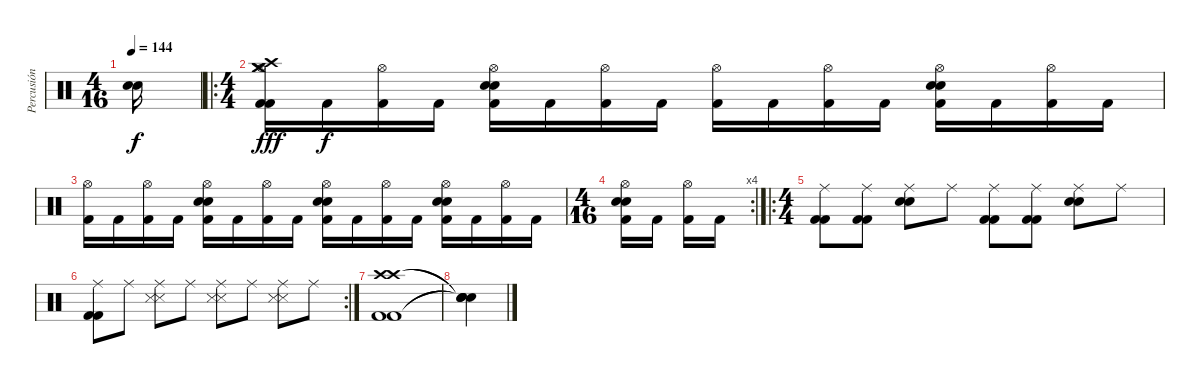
\track ("Percusión" "Percusión") {instrument percussion}
\staff {score}
\articulation defaults
\ts (4 16)
\tempo 144
\clef neutral
\ks c
("Electric Snare (hit)" "Electric Snare (hit)").16{dy f} |
\ro
\ts (4 4)
("Kick (hit) 2" "Kick (hit) 2" "Hi-Hat (open)" "Crash high (hit)" "Crash medium (hit)" "Crash medium (hit)").16{dy fff} "Kick (hit) 2".16{dy f} ("Kick (hit) 2" "Hi-Hat (open)").16 "Kick (hit) 2".16 ("Kick (hit) 2" "Hi-Hat (open)" "Electric Snare (hit)" "Electric Snare (hit)").16 "Kick (hit) 2".16 ("Kick (hit) 2" "Hi-Hat (open)").16 "Kick (hit) 2".16 ("Kick (hit) 2" "Hi-Hat (open)").16 "Kick (hit) 2".16 ("Kick (hit) 2" "Hi-Hat (open)").16 "Kick (hit) 2".16 ("Kick (hit) 2" "Hi-Hat (open)" "Electric Snare (hit)" "Electric Snare (hit)").16 "Kick (hit) 2".16 ("Kick (hit) 2" "Hi-Hat (open)").16 "Kick (hit) 2".16 |
("Kick (hit) 2" "Hi-Hat (open)").16 "Kick (hit) 2".16 ("Kick (hit) 2" "Hi-Hat (open)").16 "Kick (hit) 2".16 ("Kick (hit) 2" "Hi-Hat (open)" "Electric Snare (hit)" "Electric Snare (hit)").16 "Kick (hit) 2".16 ("Kick (hit) 2" "Hi-Hat (open)").16 "Kick (hit) 2".16 ("Kick (hit) 2" "Hi-Hat (open)" "Electric Snare (hit)" "Electric Snare (hit)").16 "Kick (hit) 2".16 ("Kick (hit) 2" "Hi-Hat (open)").16 "Kick (hit) 2".16 ("Kick (hit) 2" "Hi-Hat (open)" "Electric Snare (hit)" "Electric Snare (hit)").16 "Kick (hit) 2".16 ("Kick (hit) 2" "Hi-Hat (open)").16 "Kick (hit) 2".16 |
\rc 4
\ts (4 16)
("Kick (hit) 2" "Hi-Hat (open)" "Electric Snare (hit)" "Electric Snare (hit)").16 "Kick (hit) 2".16 ("Kick (hit) 2" "Hi-Hat (open)").16 "Kick (hit) 2".16 |
\ro
\ts (4 4)
("Ride (middle)" "Kick (hit) 2" "Kick (hit) 2").8 ("Ride (middle)" "Kick (hit) 2" "Kick (hit) 2").8 ("Electric Snare (hit)" "Ride (middle)" "Electric Snare (hit)").8 "Ride (middle)".8 ("Ride (middle)" "Kick (hit) 2" "Kick (hit) 2").8 ("Ride (middle)" "Kick (hit) 2" "Kick (hit) 2").8 ("Electric Snare (hit)" "Ride (middle)" "Electric Snare (hit)").8 "Ride (middle)".8 |
\rc 2
("Ride (middle)" "Kick (hit) 2" "Kick (hit) 2").8 "Ride (middle)".8 ("Snare (side stick) 3" "Ride (middle)" "Snare (side stick) 3").8 "Ride (middle)".8 ("Snare (side stick) 3" "Ride (middle)" "Snare (side stick) 3").8 "Ride (middle)".8 ("Snare (side stick) 3" "Ride (middle)" "Snare (side stick) 3").8 "Ride (middle)".8 |
("Kick (hit) 2" "Kick (hit) 2" "Crash high (hit)" "Crash high (hit)").1 |
("Snare (hit)"{t} "Snare (hit)"{t} "Snare (hit)"{t} "Snare (hit)"{t}).4
